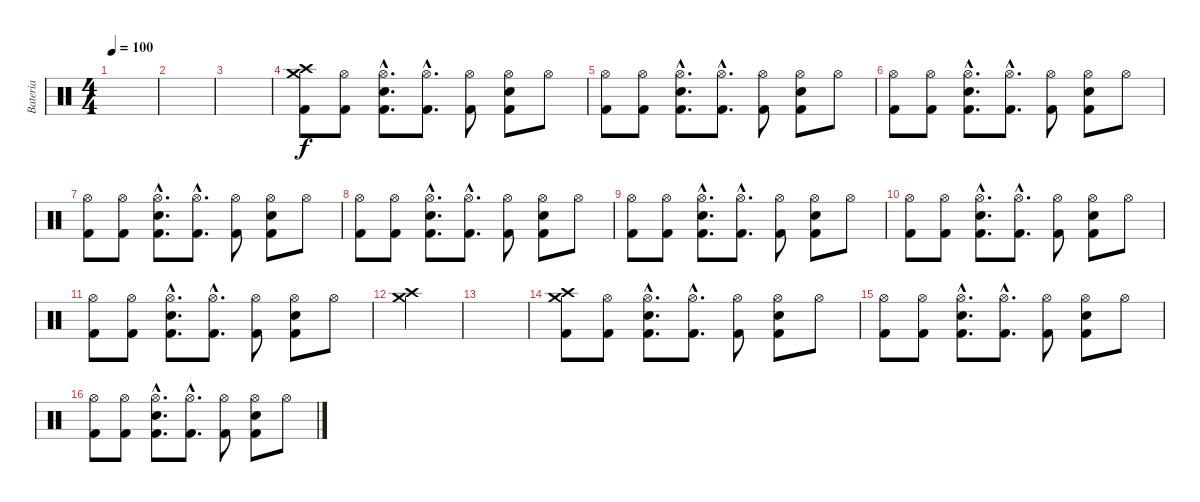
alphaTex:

\track ("Bateria" "Bateria") {instrument percussion}
\staff {score}
\articulation defaults
\ts (4 4)
\tempo 100
\clef neutral
\ks c
|
|
|
("Kick (hit) 2" "Crash medium (hit)" "Crash high (hit)").8 ("Kick (hit) 2" "Hi-Hat (open)").8 ("Kick (hit) 2"{hac} "Electric Snare (hit)"{hac} "Hi-Hat (open)"{hac}).8{d} ("Kick (hit) 2"{hac} "Hi-Hat (open)"{hac}).8{d} ("Kick (hit) 2" "Hi-Hat (open)").8 ("Kick (hit) 2" "Electric Snare (hit)" "Hi-Hat (open)").8 "Hi-Hat (open)".8 |
("Kick (hit) 2" "Hi-Hat (open)").8 ("Kick (hit) 2" "Hi-Hat (open)").8 ("Kick (hit) 2"{hac} "Electric Snare (hit)"{hac} "Hi-Hat (open)"{hac}).8{d} ("Kick (hit) 2"{hac} "Hi-Hat (open)"{hac}).8{d} ("Kick (hit) 2" "Hi-Hat (open)").8 ("Kick (hit) 2" "Electric Snare (hit)" "Hi-Hat (open)").8 "Hi-Hat (open)".8 |
("Kick (hit) 2" "Hi-Hat (open)").8 ("Kick (hit) 2" "Hi-Hat (open)").8 ("Kick (hit) 2"{hac} "Electric Snare (hit)"{hac} "Hi-Hat (open)"{hac}).8{d} ("Kick (hit) 2"{hac} "Hi-Hat (open)"{hac}).8{d} ("Kick (hit) 2" "Hi-Hat (open)").8 ("Kick (hit) 2" "Electric Snare (hit)" "Hi-Hat (open)").8 "Hi-Hat (open)".8 |
("Kick (hit) 2" "Hi-Hat (open)").8 ("Kick (hit) 2" "Hi-Hat (open)").8 ("Kick (hit) 2"{hac} "Electric Snare (hit)"{hac} "Hi-Hat (open)"{hac}).8{d} ("Kick (hit) 2"{hac} "Hi-Hat (open)"{hac}).8{d} ("Kick (hit) 2" "Hi-Hat (open)").8 ("Kick (hit) 2" "Electric Snare (hit)" "Hi-Hat (open)").8 "Hi-Hat (open)".8 |
("Kick (hit) 2" "Hi-Hat (open)").8 ("Kick (hit) 2" "Hi-Hat (open)").8 ("Kick (hit) 2"{hac} "Electric Snare (hit)"{hac} "Hi-Hat (open)"{hac}).8{d} ("Kick (hit) 2"{hac} "Hi-Hat (open)"{hac}).8{d} ("Kick (hit) 2" "Hi-Hat (open)").8 ("Kick (hit) 2" "Electric Snare (hit)" "Hi-Hat (open)").8 "Hi-Hat (open)".8 |
("Kick (hit) 2" "Hi-Hat (open)").8 ("Kick (hit) 2" "Hi-Hat (open)").8 ("Kick (hit) 2"{hac} "Electric Snare (hit)"{hac} "Hi-Hat (open)"{hac}).8{d} ("Kick (hit) 2"{hac} "Hi-Hat (open)"{hac}).8{d} ("Kick (hit) 2" "Hi-Hat (open)").8 ("Kick (hit) 2" "Electric Snare (hit)" "Hi-Hat (open)").8 "Hi-Hat (open)".8 |
("Kick (hit) 2" "Hi-Hat (open)").8 ("Kick (hit) 2" "Hi-Hat (open)").8 ("Kick (hit) 2"{hac} "Electric Snare (hit)"{hac} "Hi-Hat (open)"{hac}).8{d} ("Kick (hit) 2"{hac} "Hi-Hat (open)"{hac}).8{d} ("Kick (hit) 2" "Hi-Hat (open)").8 ("Kick (hit) 2" "Electric Snare (hit)" "Hi-Hat (open)").8 "Hi-Hat (open)".8 |
("Kick (hit) 2" "Hi-Hat (open)").8 ("Kick (hit) 2" "Hi-Hat (open)").8 ("Kick (hit) 2"{hac} "Electric Snare (hit)"{hac} "Hi-Hat (open)"{hac}).8{d} ("Kick (hit) 2"{hac} "Hi-Hat (open)"{hac}).8{d} ("Kick (hit) 2" "Hi-Hat (open)").8 ("Kick (hit) 2" "Electric Snare (hit)" "Hi-Hat (open)").8 "Hi-Hat (open)".8 |
("Crash high (hit)" "Crash medium (hit)").4 |
|
("Kick (hit) 2" "Crash medium (hit)" "Crash high (hit)").8 ("Kick (hit) 2" "Hi-Hat (open)").8 ("Kick (hit) 2"{hac} "Electric Snare (hit)"{hac} "Hi-Hat (open)"{hac}).8{d} ("Kick (hit) 2"{hac} "Hi-Hat (open)"{hac}).8{d} ("Kick (hit) 2" "Hi-Hat (open)").8 ("Kick (hit) 2" "Electric Snare (hit)" "Hi-Hat (open)").8 "Hi-Hat (open)".8 |
("Kick (hit) 2" "Hi-Hat (open)").8 ("Kick (hit) 2" "Hi-Hat (open)").8 ("Kick (hit) 2"{hac} "Electric Snare (hit)"{hac} "Hi-Hat (open)"{hac}).8{d} ("Kick (hit) 2"{hac} "Hi-Hat (open)"{hac}).8{d} ("Kick (hit) 2" "Hi-Hat (open)").8 ("Kick (hit) 2" "Electric Snare (hit)" "Hi-Hat (open)").8 "Hi-Hat (open)".8 |
("Kick (hit) 2" "Hi-Hat (open)").8 ("Kick (hit) 2" "Hi-Hat (open)").8 ("Kick (hit) 2"{hac} "Electric Snare (hit)"{hac} "Hi-Hat (open)"{hac}).8{d} ("Kick (hit) 2"{hac} "Hi-Hat (open)"{hac}).8{d} ("Kick (hit) 2" "Hi-Hat (open)").8 ("Kick (hit) 2" "Electric Snare (hit)" "Hi-Hat (open)").8 "Hi-Hat (open)".8
